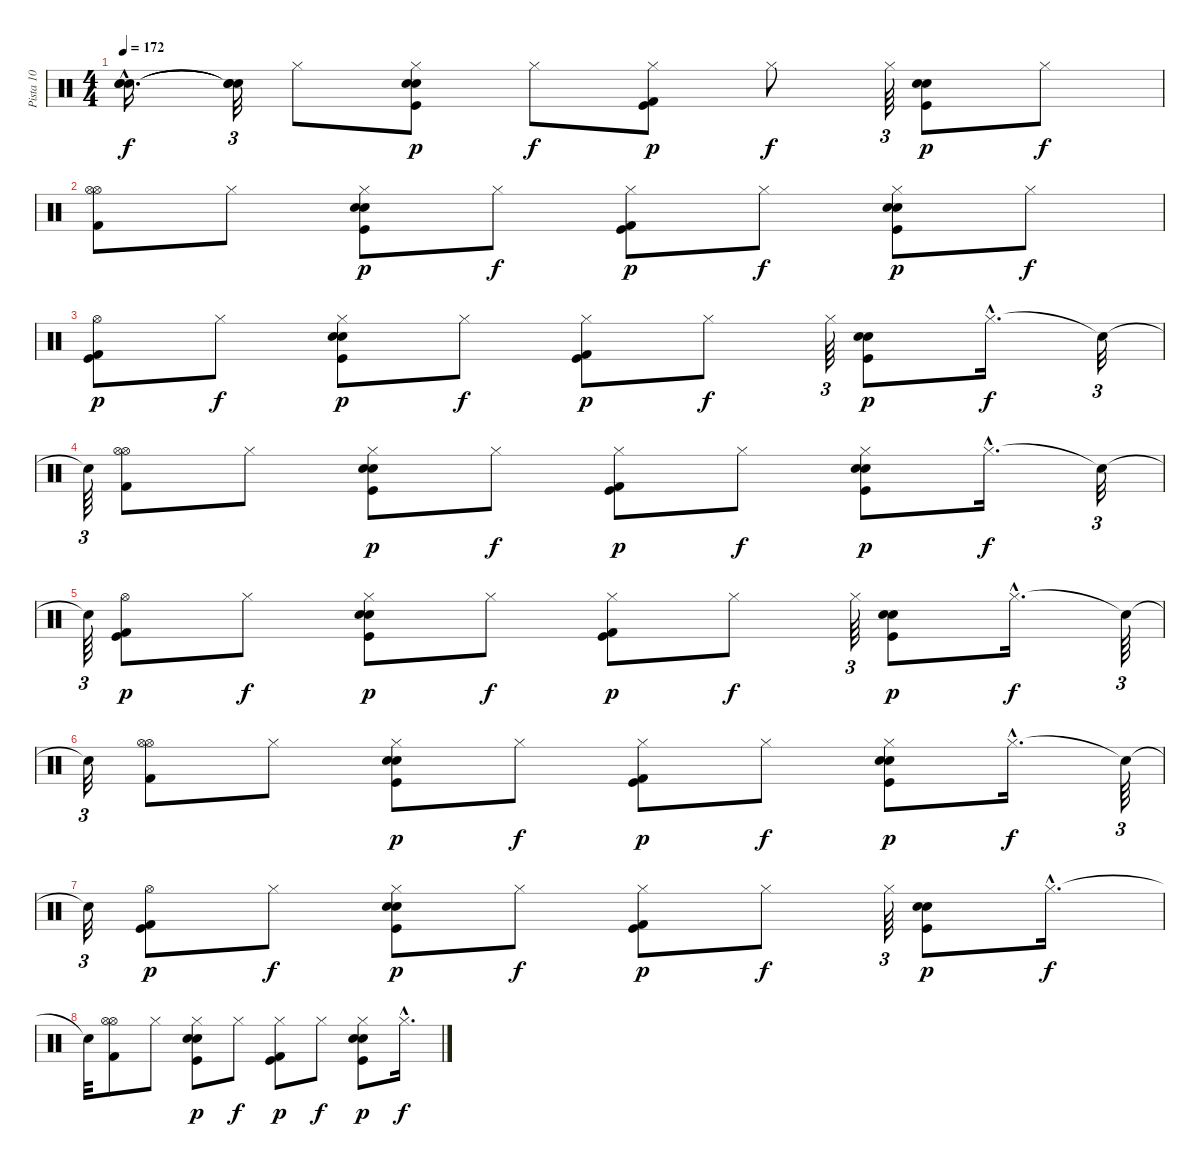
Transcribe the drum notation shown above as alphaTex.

\track ("Pista 10" "Pista 10") {instrument percussion}
\staff {score}
\articulation defaults
\ts (4 4)
\tempo 172
\clef neutral
\ks c
("Snare (hit)"{hac t} "Snare (hit)"{hac t} "Snare (hit)"{hac t}).16{d dy f} ("Snare (hit)"{t} "Snare (hit)"{t} "Snare (hit)"{t}).32{tu (3 2)} "Hi-Hat (closed)".8 ("Hi-Hat (closed)" "Snare (hit) 2" "Electric Snare (hit)" "Kick (hit)").8{dy p} "Hi-Hat (closed)".8{dy f} ("Hi-Hat (closed)" "Kick (hit) 2" "Kick (hit)").8{dy p} "Hi-Hat (closed)".8{dy f} "Hi-Hat (closed)".64{tu (3 2)} ("Snare (hit) 2" "Electric Snare (hit)" "Kick (hit)").8{dy p} "Hi-Hat (closed)".8{dy f} |
("Hi-Hat (open)" "Hi-Hat (open)" "Kick (hit) 2").8 "Hi-Hat (closed)".8 ("Hi-Hat (closed)" "Electric Snare (hit)" "Snare (hit) 2" "Kick (hit)").8{dy p} "Hi-Hat (closed)".8{dy f} ("Kick (hit) 2" "Kick (hit)" "Hi-Hat (closed)").8{dy p} "Hi-Hat (closed)".8{dy f} ("Snare (hit) 2" "Electric Snare (hit)" "Kick (hit)" "Hi-Hat (closed)").8{dy p} "Hi-Hat (closed)".8{dy f} |
("Hi-Hat (open)" "Kick (hit) 2" "Kick (hit)").8{dy p} "Hi-Hat (closed)".8{dy f} ("Hi-Hat (closed)" "Snare (hit) 2" "Electric Snare (hit)" "Kick (hit)").8{dy p} "Hi-Hat (closed)".8{dy f} ("Hi-Hat (closed)" "Kick (hit) 2" "Kick (hit)").8{dy p} "Hi-Hat (closed)".8{dy f} "Hi-Hat (closed)".64{tu (3 2)} ("Snare (hit) 2" "Electric Snare (hit)" "Kick (hit)").8{dy p} "Hi-Hat (closed)"{hac}.16{d dy f} "Snare (hit)"{t}.32{tu (3 2)} |
"Snare (hit)"{t}.64{tu (3 2)} ("Hi-Hat (open)" "Hi-Hat (open)" "Kick (hit) 2").8 "Hi-Hat (closed)".8 ("Hi-Hat (closed)" "Electric Snare (hit)" "Snare (hit) 2" "Kick (hit)").8{dy p} "Hi-Hat (closed)".8{dy f} ("Kick (hit) 2" "Kick (hit)" "Hi-Hat (closed)").8{dy p} "Hi-Hat (closed)".8{dy f} ("Snare (hit) 2" "Electric Snare (hit)" "Kick (hit)" "Hi-Hat (closed)").8{dy p} "Hi-Hat (closed)"{hac}.16{d dy f} "Snare (hit)"{t}.32{tu (3 2)} |
"Snare (hit)"{t}.64{tu (3 2)} ("Hi-Hat (open)" "Kick (hit) 2" "Kick (hit)").8{dy p} "Hi-Hat (closed)".8{dy f} ("Hi-Hat (closed)" "Snare (hit) 2" "Electric Snare (hit)" "Kick (hit)").8{dy p} "Hi-Hat (closed)".8{dy f} ("Hi-Hat (closed)" "Kick (hit) 2" "Kick (hit)").8{dy p} "Hi-Hat (closed)".8{dy f} "Hi-Hat (closed)".64{tu (3 2)} ("Snare (hit) 2" "Electric Snare (hit)" "Kick (hit)").8{dy p} "Hi-Hat (closed)"{hac}.16{d dy f} "Snare (hit)"{t}.64{tu (3 2)} |
"Snare (hit)"{t}.32{tu (3 2)} ("Hi-Hat (open)" "Hi-Hat (open)" "Kick (hit) 2").8 "Hi-Hat (closed)".8 ("Hi-Hat (closed)" "Electric Snare (hit)" "Snare (hit) 2" "Kick (hit)").8{dy p} "Hi-Hat (closed)".8{dy f} ("Kick (hit) 2" "Kick (hit)" "Hi-Hat (closed)").8{dy p} "Hi-Hat (closed)".8{dy f} ("Snare (hit) 2" "Electric Snare (hit)" "Kick (hit)" "Hi-Hat (closed)").8{dy p} "Hi-Hat (closed)"{hac}.16{d dy f} "Snare (hit)"{t}.64{tu (3 2)} |
"Snare (hit)"{t}.32{tu (3 2)} ("Hi-Hat (open)" "Kick (hit) 2" "Kick (hit)").8{dy p} "Hi-Hat (closed)".8{dy f} ("Hi-Hat (closed)" "Snare (hit) 2" "Electric Snare (hit)" "Kick (hit)").8{dy p} "Hi-Hat (closed)".8{dy f} ("Hi-Hat (closed)" "Kick (hit) 2" "Kick (hit)").8{dy p} "Hi-Hat (closed)".8{dy f} "Hi-Hat (closed)".64{tu (3 2)} ("Snare (hit) 2" "Electric Snare (hit)" "Kick (hit)").8{dy p} "Hi-Hat (closed)"{hac}.16{d dy f} |
"Snare (hit)"{t}.32 ("Hi-Hat (open)" "Hi-Hat (open)" "Kick (hit) 2").8 "Hi-Hat (closed)".8 ("Hi-Hat (closed)" "Electric Snare (hit)" "Snare (hit) 2" "Kick (hit)").8{dy p} "Hi-Hat (closed)".8{dy f} ("Kick (hit) 2" "Kick (hit)" "Hi-Hat (closed)").8{dy p} "Hi-Hat (closed)".8{dy f} ("Snare (hit) 2" "Electric Snare (hit)" "Kick (hit)" "Hi-Hat (closed)").8{dy p} "Hi-Hat (closed)"{hac}.16{d dy f}
